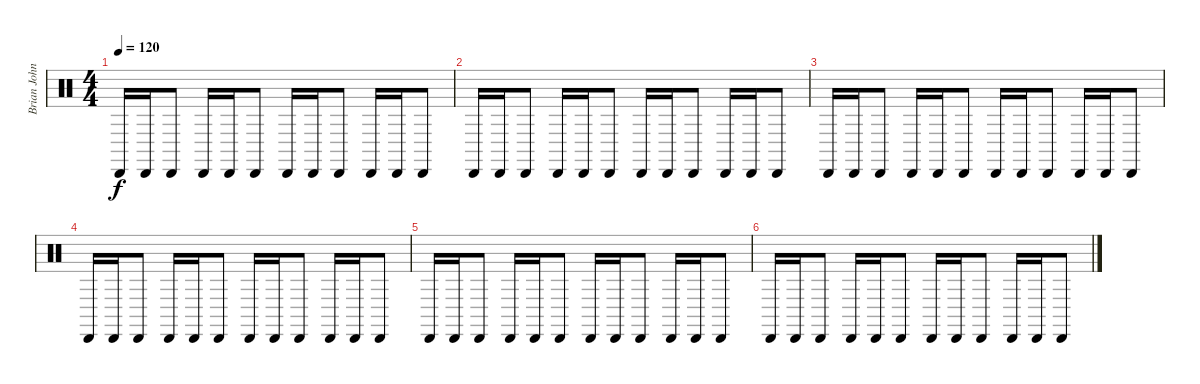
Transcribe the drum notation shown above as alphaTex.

\track ("Brian Johnson - Shaker" "Brian John") {instrument percussion}
\staff {score}
\articulation defaults
\ts (4 4)
\tempo 120
\clef neutral
\ks c "Cabasa (hit)".16{dy f} "Cabasa (hit)".16 "Cabasa (hit)".8 "Cabasa (hit)".16 "Cabasa (hit)".16 "Cabasa (hit)".8 "Cabasa (hit)".16 "Cabasa (hit)".16 "Cabasa (hit)".8 "Cabasa (hit)".16 "Cabasa (hit)".16 "Cabasa (hit)".8
|
"Cabasa (hit)".16 "Cabasa (hit)".16 "Cabasa (hit)".8 "Cabasa (hit)".16 "Cabasa (hit)".16 "Cabasa (hit)".8 "Cabasa (hit)".16 "Cabasa (hit)".16 "Cabasa (hit)".8 "Cabasa (hit)".16 "Cabasa (hit)".16 "Cabasa (hit)".8 |
"Cabasa (hit)".16 "Cabasa (hit)".16 "Cabasa (hit)".8 "Cabasa (hit)".16 "Cabasa (hit)".16 "Cabasa (hit)".8 "Cabasa (hit)".16 "Cabasa (hit)".16 "Cabasa (hit)".8 "Cabasa (hit)".16 "Cabasa (hit)".16 "Cabasa (hit)".8 |
"Cabasa (hit)".16 "Cabasa (hit)".16 "Cabasa (hit)".8 "Cabasa (hit)".16 "Cabasa (hit)".16 "Cabasa (hit)".8 "Cabasa (hit)".16 "Cabasa (hit)".16 "Cabasa (hit)".8 "Cabasa (hit)".16 "Cabasa (hit)".16 "Cabasa (hit)".8 |
"Cabasa (hit)".16 "Cabasa (hit)".16 "Cabasa (hit)".8 "Cabasa (hit)".16 "Cabasa (hit)".16 "Cabasa (hit)".8 "Cabasa (hit)".16 "Cabasa (hit)".16 "Cabasa (hit)".8 "Cabasa (hit)".16 "Cabasa (hit)".16 "Cabasa (hit)".8 |
"Cabasa (hit)".16 "Cabasa (hit)".16 "Cabasa (hit)".8 "Cabasa (hit)".16 "Cabasa (hit)".16 "Cabasa (hit)".8 "Cabasa (hit)".16 "Cabasa (hit)".16 "Cabasa (hit)".8 "Cabasa (hit)".16 "Cabasa (hit)".16 "Cabasa (hit)".8
